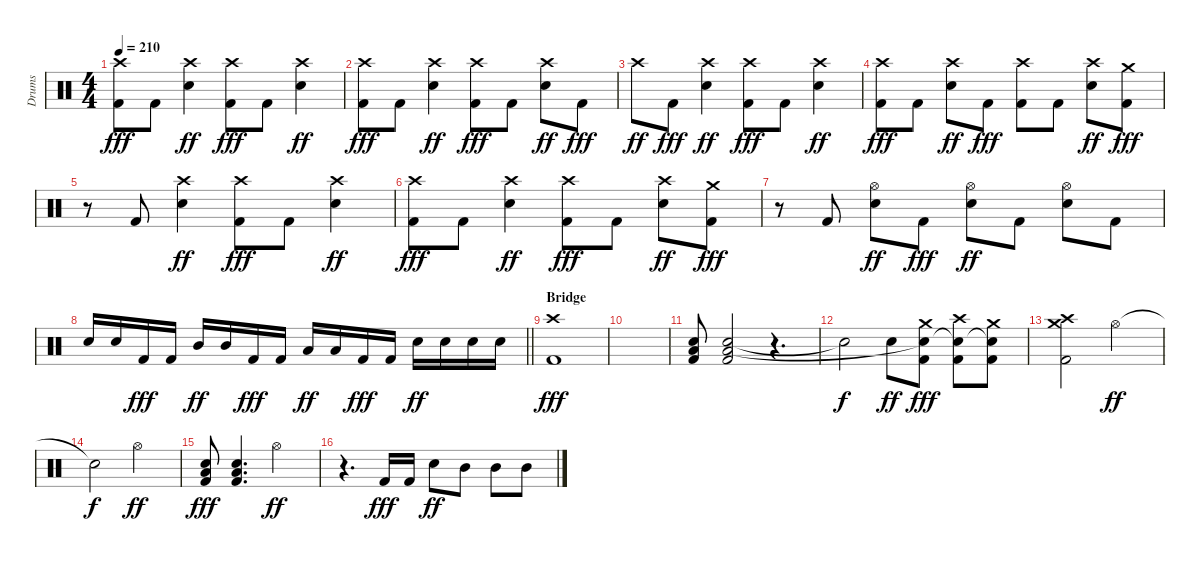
\track ("Drums" "Drums") {instrument percussion}
\staff {score}
\articulation defaults
\ts (4 4)
\tempo 210
\clef neutral
\ks c
("Crash high (hit)" "Kick (hit) 2").8{dy fff} "Kick (hit) 2".8 ("Crash high (hit)" "Snare (hit) 2").4{dy ff} ("Crash high (hit)" "Kick (hit) 2").8{dy fff} "Kick (hit) 2".8 ("Crash high (hit)" "Snare (hit) 2").4{dy ff} |
("Crash high (hit)" "Kick (hit) 2").8{dy fff} "Kick (hit) 2".8 ("Crash high (hit)" "Snare (hit) 2").4{dy ff} ("Crash high (hit)" "Kick (hit) 2").8{dy fff} "Kick (hit) 2".8 ("Crash high (hit)" "Snare (hit) 2").8{dy ff} "Kick (hit) 2".8{dy fff} |
"Crash high (hit)".8{dy ff} "Kick (hit) 2".8{dy fff} ("Crash high (hit)" "Snare (hit) 2").4{dy ff} ("Crash high (hit)" "Kick (hit) 2").8{dy fff} "Kick (hit) 2".8 ("Crash high (hit)" "Snare (hit) 2").4{dy ff} |
("Crash high (hit)" "Kick (hit) 2").8{dy fff} "Kick (hit) 2".8 ("Crash high (hit)" "Snare (hit) 2").8{dy ff} "Kick (hit) 2".8{dy fff} ("Crash high (hit)" "Kick (hit) 2").8 "Kick (hit) 2".8 ("Crash high (hit)" "Snare (hit) 2").8{dy ff} ("Crash medium (hit)" "Kick (hit) 2").8{dy fff} |
r.8 "Kick (hit) 2".8 ("Crash high (hit)" "Snare (hit) 2").4{dy ff} ("Crash high (hit)" "Kick (hit) 2").8{dy fff} "Kick (hit) 2".8 ("Crash high (hit)" "Snare (hit) 2").4{dy ff} |
("Crash high (hit)" "Kick (hit) 2").8{dy fff} "Kick (hit) 2".8 ("Crash high (hit)" "Snare (hit) 2").4{dy ff} ("Crash high (hit)" "Kick (hit) 2").8{dy fff} "Kick (hit) 2".8 ("Crash high (hit)" "Snare (hit) 2").8{dy ff} ("Crash medium (hit)" "Kick (hit) 2").8{dy fff} |
r.8 "Kick (hit) 2".8 ("Hi-Hat (open)" "Snare (hit) 2").8{dy ff} "Kick (hit) 2".8{dy fff} ("Hi-Hat (open)" "Snare (hit) 2").8{dy ff} "Kick (hit) 2".8 ("Hi-Hat (open)" "Snare (hit) 2").8 "Kick (hit) 2".8 |
\barLineRight lightlight "Snare (hit) 2".16 "Snare (hit) 2".16 "Kick (hit) 2".16{dy fff} "Kick (hit) 2".16 "Mid Tom (hit)".16{dy ff} "Mid Tom (hit)".16 "Kick (hit) 2".16{dy fff} "Kick (hit) 2".16 "Low Tom (hit)".16{dy ff} "Low Tom (hit)".16 "Kick (hit) 2".16{dy fff} "Kick (hit) 2".16 "Snare (hit) 2".16{dy ff} "Snare (hit) 2".16 "Snare (hit) 2".16 "Snare (hit) 2".16
|
\section ("" "Bridge")
("Crash high (hit)" "Kick (hit) 2").1{dy fff} |
|
("Snare (hit) 2" "Low Floor Tom (hit)" "Kick (hit) 2").8 ("Snare (hit) 2" "Low Floor Tom (hit)" "Kick (hit) 2").2 r.4{d} |
"Snare (hit)"{t}.2{dy f} "Snare (hit) 2".8{dy ff} ("Crash medium (hit)" "Snare (hit)"{t} "Kick (hit) 2").8{dy fff} ("Crash high (hit)" "Snare (hit)"{t} "Kick (hit) 2").8 ("Crash medium (hit)" "Snare (hit)"{t} "Kick (hit) 2").8 |
("Crash medium (hit)" "Crash high (hit)" "Kick (hit) 2").2 "Hi-Hat (open)".2{dy ff} |
"Snare (hit)"{t}.2{dy f} "Hi-Hat (open)".2{dy ff} |
("Snare (hit) 2" "Low Floor Tom (hit)" "Kick (hit) 2").8{dy fff} ("Snare (hit) 2" "Low Floor Tom (hit)" "Kick (hit) 2").4{d} "Hi-Hat (open)".2{dy ff} |
r.4{d} "Kick (hit) 2".16{dy fff} "Kick (hit) 2".16 "Snare (hit) 2".8{dy ff} "Mid Tom (hit)".8 "Mid Tom (hit)".8 "Mid Tom (hit)".8
